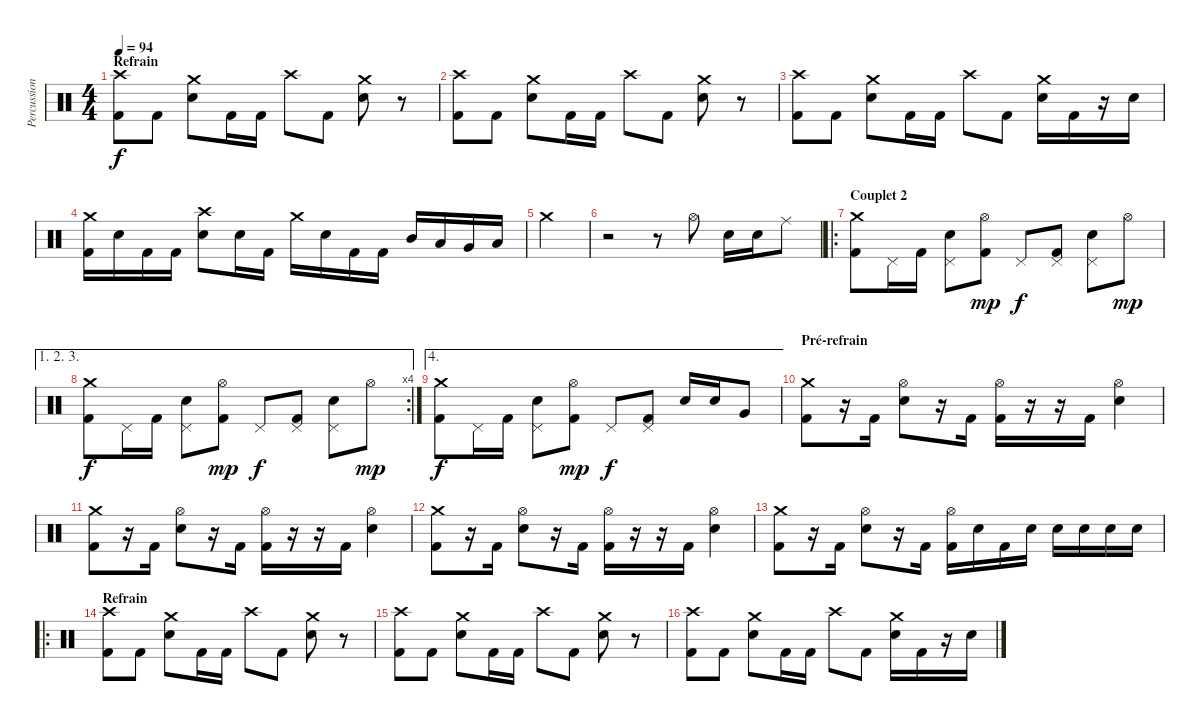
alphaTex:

\track ("Percussions" "Percussion") {instrument percussion}
\staff {score}
\articulation defaults
\ts (4 4)
\section ("" "Refrain")
\tempo 94
\clef neutral
\ks c
("Crash high (hit)" "Kick (hit) 2").8{dy f volume 13} "Kick (hit) 2".8 ("Crash medium (hit)" "Electric Snare (hit)").8 "Kick (hit) 2".16 "Kick (hit) 2".16 "Crash high (hit)".8 "Kick (hit) 2".8 ("Crash medium (hit)" "Electric Snare (hit)").8 r.8 |
("Crash high (hit)" "Kick (hit) 2").8 "Kick (hit) 2".8 ("Crash medium (hit)" "Electric Snare (hit)").8 "Kick (hit) 2".16 "Kick (hit) 2".16 "Crash high (hit)".8 "Kick (hit) 2".8 ("Crash medium (hit)" "Electric Snare (hit)").8 r.8 |
("Crash high (hit)" "Kick (hit) 2").8 "Kick (hit) 2".8 ("Crash medium (hit)" "Electric Snare (hit)").8 "Kick (hit) 2".16 "Kick (hit) 2".16 "Crash high (hit)".8 "Kick (hit) 2".8 ("Crash medium (hit)" "Electric Snare (hit)").16 "Kick (hit) 2".16 r.16 "Electric Snare (hit)".16 |
("Crash medium (hit)" "Kick (hit) 2").16 "Electric Snare (hit)".16 "Kick (hit) 2".16 "Kick (hit) 2".16 ("Crash high (hit)" "Electric Snare (hit)").8 "Electric Snare (hit)".16 "Kick (hit) 2".16 "Crash medium (hit)".16 "Electric Snare (hit)".16 "Kick (hit) 2".16 "Kick (hit) 2".16 "Mid Tom (hit)".16 "Low Tom (hit)".16 "Very Low Tom (hit)".16 "Low Floor Tom (hit)".16 |
"Crash medium (hit)".4 |
r.2 r.8 "Hi-Hat (open)".8 "Electric Snare (hit)".16 "Electric Snare (hit)".16 "Ride (middle)".8 |
\ro
\section ("" "Couplet 2")
("Crash medium (hit)" "Kick (hit) 2").8 "Pedal Hi-Hat (hit)".16 "Kick (hit) 2".16 ("Pedal Hi-Hat (hit)" "Electric Snare (hit)").8 ("Hi-Hat (open)" "Kick (hit) 2").8{dy mp} "Pedal Hi-Hat (hit)".8{dy f} ("Pedal Hi-Hat (hit)" "Kick (hit) 2").8 ("Pedal Hi-Hat (hit)" "Electric Snare (hit)").8 "Hi-Hat (open)".8{dy mp} |
\ae (1 2 3)
\rc 4
("Crash medium (hit)" "Kick (hit) 2").8{dy f} "Pedal Hi-Hat (hit)".16 "Kick (hit) 2".16 ("Pedal Hi-Hat (hit)" "Electric Snare (hit)").8 ("Hi-Hat (open)" "Kick (hit) 2").8{dy mp} "Pedal Hi-Hat (hit)".8{dy f} ("Pedal Hi-Hat (hit)" "Kick (hit) 2").8 ("Pedal Hi-Hat (hit)" "Electric Snare (hit)").8 "Hi-Hat (open)".8{dy mp} |
\ae 4
("Crash medium (hit)" "Kick (hit) 2").8{dy f} "Pedal Hi-Hat (hit)".16 "Kick (hit) 2".16 ("Pedal Hi-Hat (hit)" "Electric Snare (hit)").8 ("Hi-Hat (open)" "Kick (hit) 2").8{dy mp} "Pedal Hi-Hat (hit)".8{dy f} ("Pedal Hi-Hat (hit)" "Kick (hit) 2").8 "Electric Snare (hit)".16 "Electric Snare (hit)".16 "Very Low Tom (hit)".8 |
\section ("" "Pré-refrain")
("Crash medium (hit)" "Kick (hit) 2").8 r.16 "Kick (hit) 2".16 ("Hi-Hat (open)" "Electric Snare (hit)").8 r.16 "Kick (hit) 2".16 ("Hi-Hat (open)" "Kick (hit) 2").16 r.16 r.16 "Kick (hit) 2".16 ("Hi-Hat (open)" "Electric Snare (hit)").4 |
("Crash medium (hit)" "Kick (hit) 2").8 r.16 "Kick (hit) 2".16 ("Hi-Hat (open)" "Electric Snare (hit)").8 r.16 "Kick (hit) 2".16 ("Hi-Hat (open)" "Kick (hit) 2").16 r.16 r.16 "Kick (hit) 2".16 ("Hi-Hat (open)" "Electric Snare (hit)").4 |
("Crash medium (hit)" "Kick (hit) 2").8 r.16 "Kick (hit) 2".16 ("Hi-Hat (open)" "Electric Snare (hit)").8 r.16 "Kick (hit) 2".16 ("Hi-Hat (open)" "Kick (hit) 2").16 r.16 r.16 "Kick (hit) 2".16 ("Hi-Hat (open)" "Electric Snare (hit)").4 |
("Crash medium (hit)" "Kick (hit) 2").8 r.16 "Kick (hit) 2".16 ("Hi-Hat (open)" "Electric Snare (hit)").8 r.16 "Kick (hit) 2".16 ("Hi-Hat (open)" "Kick (hit) 2").16 "Electric Snare (hit)".16 "Kick (hit) 2".16 "Electric Snare (hit)".16 "Electric Snare (hit)".16 "Electric Snare (hit)".16 "Electric Snare (hit)".16 "Electric Snare (hit)".16 |
\ro
\section ("" "Refrain")
("Crash high (hit)" "Kick (hit) 2").8{volume 13} "Kick (hit) 2".8 ("Crash medium (hit)" "Electric Snare (hit)").8 "Kick (hit) 2".16 "Kick (hit) 2".16 "Crash high (hit)".8 "Kick (hit) 2".8 ("Crash medium (hit)" "Electric Snare (hit)").8 r.8 |
("Crash high (hit)" "Kick (hit) 2").8 "Kick (hit) 2".8 ("Crash medium (hit)" "Electric Snare (hit)").8 "Kick (hit) 2".16 "Kick (hit) 2".16 "Crash high (hit)".8 "Kick (hit) 2".8 ("Crash medium (hit)" "Electric Snare (hit)").8 r.8 |
("Crash high (hit)" "Kick (hit) 2").8 "Kick (hit) 2".8 ("Crash medium (hit)" "Electric Snare (hit)").8 "Kick (hit) 2".16 "Kick (hit) 2".16 "Crash high (hit)".8 "Kick (hit) 2".8 ("Crash medium (hit)" "Electric Snare (hit)").16 "Kick (hit) 2".16 r.16 "Electric Snare (hit)".16
